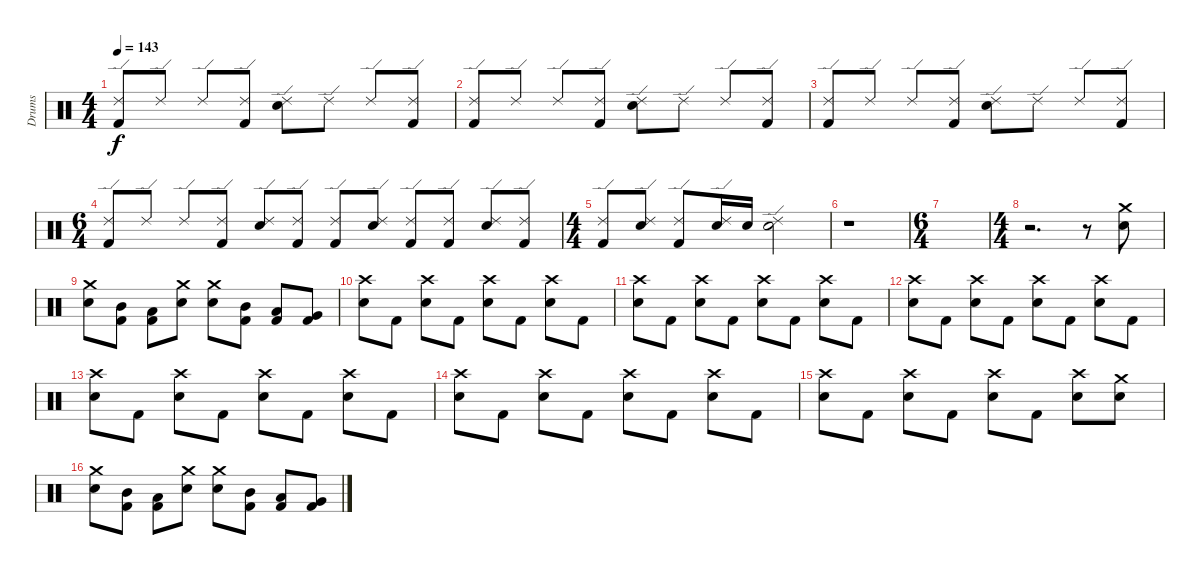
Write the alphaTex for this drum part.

\track ("Drums" "Drums") {instrument percussion}
\staff {score}
\articulation defaults
\ts (4 4)
\tempo 143
\clef neutral
\ks c
("Ride (edge) 2" "Kick (hit) 2").8{dy f} "Ride (edge) 2".8 "Ride (edge) 2".8 ("Ride (edge) 2" "Kick (hit) 2").8 ("Ride (edge) 2" "Electric Snare (hit)").8 "Ride (edge) 2".8 "Ride (edge) 2".8 ("Ride (edge) 2" "Kick (hit) 2").8 |
("Ride (edge) 2" "Kick (hit) 2").8 "Ride (edge) 2".8 "Ride (edge) 2".8 ("Ride (edge) 2" "Kick (hit) 2").8 ("Ride (edge) 2" "Electric Snare (hit)").8 "Ride (edge) 2".8 "Ride (edge) 2".8 ("Ride (edge) 2" "Kick (hit) 2").8 |
("Ride (edge) 2" "Kick (hit) 2").8 "Ride (edge) 2".8 "Ride (edge) 2".8 ("Ride (edge) 2" "Kick (hit) 2").8 ("Ride (edge) 2" "Electric Snare (hit)").8 "Ride (edge) 2".8 "Ride (edge) 2".8 ("Ride (edge) 2" "Kick (hit) 2").8 |
\ts (6 4)
("Ride (edge) 2" "Kick (hit) 2").8 "Ride (edge) 2".8 "Ride (edge) 2".8 ("Ride (edge) 2" "Kick (hit) 2").8 ("Ride (edge) 2" "Electric Snare (hit)").8 ("Ride (edge) 2" "Kick (hit) 2").8 ("Ride (edge) 2" "Kick (hit) 2").8 ("Ride (edge) 2" "Electric Snare (hit)").8 ("Ride (edge) 2" "Kick (hit) 2").8 ("Ride (edge) 2" "Kick (hit) 2").8 ("Ride (edge) 2" "Electric Snare (hit)").8 ("Ride (edge) 2" "Kick (hit) 2").8 |
\ts (4 4)
("Ride (edge) 2" "Kick (hit) 2").8 ("Ride (edge) 2" "Electric Snare (hit)").8 ("Ride (edge) 2" "Kick (hit) 2").8 ("Ride (edge) 2" "Electric Snare (hit)").16 "Electric Snare (hit)".16 ("Ride (edge) 2" "Electric Snare (hit)").2 |
r.1 |
\ts (6 4)
|
\ts (4 4)
r.2{d volume 16} r.8 ("Crash medium (hit)" "Electric Snare (hit)").8 |
("Crash medium (hit)" "Electric Snare (hit)").8 ("Mid Tom (hit)" "Kick (hit) 2").8 ("Low Tom (hit)" "Kick (hit) 2").8 ("Crash medium (hit)" "Electric Snare (hit)").8 ("Crash medium (hit)" "Electric Snare (hit)").8 ("Mid Tom (hit)" "Kick (hit) 2").8 ("Low Tom (hit)" "Kick (hit) 2").8 ("Very Low Tom (hit)" "Kick (hit) 2").8 |
("Crash high (hit)" "Electric Snare (hit)").8 "Kick (hit) 2".8 ("Crash high (hit)" "Electric Snare (hit)").8 "Kick (hit) 2".8 ("Crash high (hit)" "Electric Snare (hit)").8 "Kick (hit) 2".8 ("Crash high (hit)" "Electric Snare (hit)").8 "Kick (hit) 2".8 |
("Crash high (hit)" "Electric Snare (hit)").8 "Kick (hit) 2".8 ("Crash high (hit)" "Electric Snare (hit)").8 "Kick (hit) 2".8 ("Crash high (hit)" "Electric Snare (hit)").8 "Kick (hit) 2".8 ("Crash high (hit)" "Electric Snare (hit)").8 "Kick (hit) 2".8 |
("Crash high (hit)" "Electric Snare (hit)").8 "Kick (hit) 2".8 ("Crash high (hit)" "Electric Snare (hit)").8 "Kick (hit) 2".8 ("Crash high (hit)" "Electric Snare (hit)").8 "Kick (hit) 2".8 ("Crash high (hit)" "Electric Snare (hit)").8 "Kick (hit) 2".8 |
("Crash high (hit)" "Electric Snare (hit)").8 "Kick (hit) 2".8 ("Crash high (hit)" "Electric Snare (hit)").8 "Kick (hit) 2".8 ("Crash high (hit)" "Electric Snare (hit)").8 "Kick (hit) 2".8 ("Crash high (hit)" "Electric Snare (hit)").8 "Kick (hit) 2".8 |
("Crash high (hit)" "Electric Snare (hit)").8 "Kick (hit) 2".8 ("Crash high (hit)" "Electric Snare (hit)").8 "Kick (hit) 2".8 ("Crash high (hit)" "Electric Snare (hit)").8 "Kick (hit) 2".8 ("Crash high (hit)" "Electric Snare (hit)").8 "Kick (hit) 2".8 |
("Crash high (hit)" "Electric Snare (hit)").8 "Kick (hit) 2".8 ("Crash high (hit)" "Electric Snare (hit)").8 "Kick (hit) 2".8 ("Crash high (hit)" "Electric Snare (hit)").8 "Kick (hit) 2".8 ("Crash high (hit)" "Electric Snare (hit)").8 ("Crash medium (hit)" "Electric Snare (hit)").8 |
("Crash medium (hit)" "Electric Snare (hit)").8 ("Mid Tom (hit)" "Kick (hit) 2").8 ("Low Tom (hit)" "Kick (hit) 2").8 ("Crash medium (hit)" "Electric Snare (hit)").8 ("Crash medium (hit)" "Electric Snare (hit)").8 ("Mid Tom (hit)" "Kick (hit) 2").8 ("Low Tom (hit)" "Kick (hit) 2").8 ("Very Low Tom (hit)" "Kick (hit) 2").8
